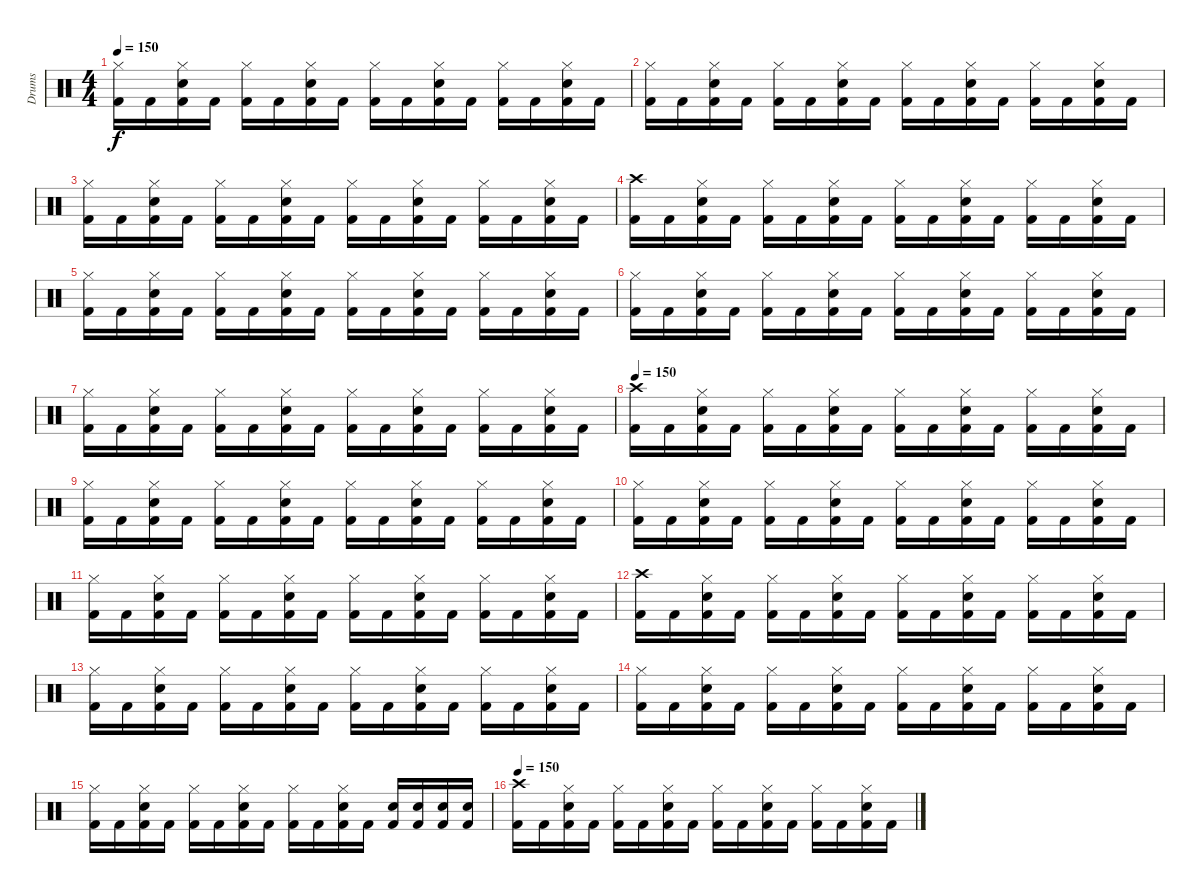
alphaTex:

\track ("Drums" "Drums") {instrument percussion}
\staff {score}
\articulation defaults
\ts (4 4)
\tempo 150
\clef neutral
\ks c
("Hi-Hat (closed)" "Kick (hit) 2").16{dy f} "Kick (hit) 2".16 ("Hi-Hat (closed)" "Electric Snare (hit)" "Kick (hit) 2").16 "Kick (hit) 2".16 ("Hi-Hat (closed)" "Kick (hit) 2").16 "Kick (hit) 2".16 ("Hi-Hat (closed)" "Electric Snare (hit)" "Kick (hit) 2").16 "Kick (hit) 2".16 ("Hi-Hat (closed)" "Kick (hit) 2").16 "Kick (hit) 2".16 ("Hi-Hat (closed)" "Electric Snare (hit)" "Kick (hit) 2").16 "Kick (hit) 2".16 ("Hi-Hat (closed)" "Kick (hit) 2").16 "Kick (hit) 2".16 ("Hi-Hat (closed)" "Electric Snare (hit)" "Kick (hit) 2").16 "Kick (hit) 2".16 |
("Hi-Hat (closed)" "Kick (hit) 2").16 "Kick (hit) 2".16 ("Hi-Hat (closed)" "Electric Snare (hit)" "Kick (hit) 2").16 "Kick (hit) 2".16 ("Hi-Hat (closed)" "Kick (hit) 2").16 "Kick (hit) 2".16 ("Hi-Hat (closed)" "Electric Snare (hit)" "Kick (hit) 2").16 "Kick (hit) 2".16 ("Hi-Hat (closed)" "Kick (hit) 2").16 "Kick (hit) 2".16 ("Hi-Hat (closed)" "Electric Snare (hit)" "Kick (hit) 2").16 "Kick (hit) 2".16 ("Hi-Hat (closed)" "Kick (hit) 2").16 "Kick (hit) 2".16 ("Hi-Hat (closed)" "Electric Snare (hit)" "Kick (hit) 2").16 "Kick (hit) 2".16 |
("Hi-Hat (closed)" "Kick (hit) 2").16 "Kick (hit) 2".16 ("Hi-Hat (closed)" "Electric Snare (hit)" "Kick (hit) 2").16 "Kick (hit) 2".16 ("Hi-Hat (closed)" "Kick (hit) 2").16 "Kick (hit) 2".16 ("Hi-Hat (closed)" "Electric Snare (hit)" "Kick (hit) 2").16 "Kick (hit) 2".16 ("Hi-Hat (closed)" "Kick (hit) 2").16 "Kick (hit) 2".16 ("Hi-Hat (closed)" "Electric Snare (hit)" "Kick (hit) 2").16 "Kick (hit) 2".16 ("Hi-Hat (closed)" "Kick (hit) 2").16 "Kick (hit) 2".16 ("Hi-Hat (closed)" "Electric Snare (hit)" "Kick (hit) 2").16 "Kick (hit) 2".16 |
("Crash high (hit)" "Kick (hit) 2").16 "Kick (hit) 2".16 ("Hi-Hat (closed)" "Electric Snare (hit)" "Kick (hit) 2").16 "Kick (hit) 2".16 ("Hi-Hat (closed)" "Kick (hit) 2").16 "Kick (hit) 2".16 ("Hi-Hat (closed)" "Electric Snare (hit)" "Kick (hit) 2").16 "Kick (hit) 2".16 ("Hi-Hat (closed)" "Kick (hit) 2").16 "Kick (hit) 2".16 ("Hi-Hat (closed)" "Electric Snare (hit)" "Kick (hit) 2").16 "Kick (hit) 2".16 ("Hi-Hat (closed)" "Kick (hit) 2").16 "Kick (hit) 2".16 ("Hi-Hat (closed)" "Electric Snare (hit)" "Kick (hit) 2").16 "Kick (hit) 2".16 |
("Hi-Hat (closed)" "Kick (hit) 2").16 "Kick (hit) 2".16 ("Hi-Hat (closed)" "Electric Snare (hit)" "Kick (hit) 2").16 "Kick (hit) 2".16 ("Hi-Hat (closed)" "Kick (hit) 2").16 "Kick (hit) 2".16 ("Hi-Hat (closed)" "Electric Snare (hit)" "Kick (hit) 2").16 "Kick (hit) 2".16 ("Hi-Hat (closed)" "Kick (hit) 2").16 "Kick (hit) 2".16 ("Hi-Hat (closed)" "Electric Snare (hit)" "Kick (hit) 2").16 "Kick (hit) 2".16 ("Hi-Hat (closed)" "Kick (hit) 2").16 "Kick (hit) 2".16 ("Hi-Hat (closed)" "Electric Snare (hit)" "Kick (hit) 2").16 "Kick (hit) 2".16 |
("Hi-Hat (closed)" "Kick (hit) 2").16 "Kick (hit) 2".16 ("Hi-Hat (closed)" "Electric Snare (hit)" "Kick (hit) 2").16 "Kick (hit) 2".16 ("Hi-Hat (closed)" "Kick (hit) 2").16 "Kick (hit) 2".16 ("Hi-Hat (closed)" "Electric Snare (hit)" "Kick (hit) 2").16 "Kick (hit) 2".16 ("Hi-Hat (closed)" "Kick (hit) 2").16 "Kick (hit) 2".16 ("Hi-Hat (closed)" "Electric Snare (hit)" "Kick (hit) 2").16 "Kick (hit) 2".16 ("Hi-Hat (closed)" "Kick (hit) 2").16 "Kick (hit) 2".16 ("Hi-Hat (closed)" "Electric Snare (hit)" "Kick (hit) 2").16 "Kick (hit) 2".16 |
("Hi-Hat (closed)" "Kick (hit) 2").16 "Kick (hit) 2".16 ("Hi-Hat (closed)" "Electric Snare (hit)" "Kick (hit) 2").16 "Kick (hit) 2".16 ("Hi-Hat (closed)" "Kick (hit) 2").16 "Kick (hit) 2".16 ("Hi-Hat (closed)" "Electric Snare (hit)" "Kick (hit) 2").16 "Kick (hit) 2".16 ("Hi-Hat (closed)" "Kick (hit) 2").16 "Kick (hit) 2".16 ("Hi-Hat (closed)" "Electric Snare (hit)" "Kick (hit) 2").16 "Kick (hit) 2".16 ("Hi-Hat (closed)" "Kick (hit) 2").16 "Kick (hit) 2".16 ("Hi-Hat (closed)" "Electric Snare (hit)" "Kick (hit) 2").16 "Kick (hit) 2".16 |
\tempo 150
("Crash high (hit)" "Kick (hit) 2").16 "Kick (hit) 2".16 ("Hi-Hat (closed)" "Electric Snare (hit)" "Kick (hit) 2").16 "Kick (hit) 2".16 ("Hi-Hat (closed)" "Kick (hit) 2").16 "Kick (hit) 2".16 ("Hi-Hat (closed)" "Electric Snare (hit)" "Kick (hit) 2").16 "Kick (hit) 2".16 ("Hi-Hat (closed)" "Kick (hit) 2").16 "Kick (hit) 2".16 ("Hi-Hat (closed)" "Electric Snare (hit)" "Kick (hit) 2").16 "Kick (hit) 2".16 ("Hi-Hat (closed)" "Kick (hit) 2").16 "Kick (hit) 2".16 ("Hi-Hat (closed)" "Electric Snare (hit)" "Kick (hit) 2").16 "Kick (hit) 2".16 |
("Hi-Hat (closed)" "Kick (hit) 2").16 "Kick (hit) 2".16 ("Hi-Hat (closed)" "Electric Snare (hit)" "Kick (hit) 2").16 "Kick (hit) 2".16 ("Hi-Hat (closed)" "Kick (hit) 2").16 "Kick (hit) 2".16 ("Hi-Hat (closed)" "Electric Snare (hit)" "Kick (hit) 2").16 "Kick (hit) 2".16 ("Hi-Hat (closed)" "Kick (hit) 2").16 "Kick (hit) 2".16 ("Hi-Hat (closed)" "Electric Snare (hit)" "Kick (hit) 2").16 "Kick (hit) 2".16 ("Hi-Hat (closed)" "Kick (hit) 2").16 "Kick (hit) 2".16 ("Hi-Hat (closed)" "Electric Snare (hit)" "Kick (hit) 2").16 "Kick (hit) 2".16 |
("Hi-Hat (closed)" "Kick (hit) 2").16 "Kick (hit) 2".16 ("Hi-Hat (closed)" "Electric Snare (hit)" "Kick (hit) 2").16 "Kick (hit) 2".16 ("Hi-Hat (closed)" "Kick (hit) 2").16 "Kick (hit) 2".16 ("Hi-Hat (closed)" "Electric Snare (hit)" "Kick (hit) 2").16 "Kick (hit) 2".16 ("Hi-Hat (closed)" "Kick (hit) 2").16 "Kick (hit) 2".16 ("Hi-Hat (closed)" "Electric Snare (hit)" "Kick (hit) 2").16 "Kick (hit) 2".16 ("Hi-Hat (closed)" "Kick (hit) 2").16 "Kick (hit) 2".16 ("Hi-Hat (closed)" "Electric Snare (hit)" "Kick (hit) 2").16 "Kick (hit) 2".16 |
("Hi-Hat (closed)" "Kick (hit) 2").16 "Kick (hit) 2".16 ("Hi-Hat (closed)" "Electric Snare (hit)" "Kick (hit) 2").16 "Kick (hit) 2".16 ("Hi-Hat (closed)" "Kick (hit) 2").16 "Kick (hit) 2".16 ("Hi-Hat (closed)" "Electric Snare (hit)" "Kick (hit) 2").16 "Kick (hit) 2".16 ("Hi-Hat (closed)" "Kick (hit) 2").16 "Kick (hit) 2".16 ("Hi-Hat (closed)" "Electric Snare (hit)" "Kick (hit) 2").16 "Kick (hit) 2".16 ("Hi-Hat (closed)" "Kick (hit) 2").16 "Kick (hit) 2".16 ("Hi-Hat (closed)" "Electric Snare (hit)" "Kick (hit) 2").16 "Kick (hit) 2".16 |
("Crash high (hit)" "Kick (hit) 2").16 "Kick (hit) 2".16 ("Hi-Hat (closed)" "Electric Snare (hit)" "Kick (hit) 2").16 "Kick (hit) 2".16 ("Hi-Hat (closed)" "Kick (hit) 2").16 "Kick (hit) 2".16 ("Hi-Hat (closed)" "Electric Snare (hit)" "Kick (hit) 2").16 "Kick (hit) 2".16 ("Hi-Hat (closed)" "Kick (hit) 2").16 "Kick (hit) 2".16 ("Hi-Hat (closed)" "Electric Snare (hit)" "Kick (hit) 2").16 "Kick (hit) 2".16 ("Hi-Hat (closed)" "Kick (hit) 2").16 "Kick (hit) 2".16 ("Hi-Hat (closed)" "Electric Snare (hit)" "Kick (hit) 2").16 "Kick (hit) 2".16 |
("Hi-Hat (closed)" "Kick (hit) 2").16 "Kick (hit) 2".16 ("Hi-Hat (closed)" "Electric Snare (hit)" "Kick (hit) 2").16 "Kick (hit) 2".16 ("Hi-Hat (closed)" "Kick (hit) 2").16 "Kick (hit) 2".16 ("Hi-Hat (closed)" "Electric Snare (hit)" "Kick (hit) 2").16 "Kick (hit) 2".16 ("Hi-Hat (closed)" "Kick (hit) 2").16 "Kick (hit) 2".16 ("Hi-Hat (closed)" "Electric Snare (hit)" "Kick (hit) 2").16 "Kick (hit) 2".16 ("Hi-Hat (closed)" "Kick (hit) 2").16 "Kick (hit) 2".16 ("Hi-Hat (closed)" "Electric Snare (hit)" "Kick (hit) 2").16 "Kick (hit) 2".16 |
("Hi-Hat (closed)" "Kick (hit) 2").16 "Kick (hit) 2".16 ("Hi-Hat (closed)" "Electric Snare (hit)" "Kick (hit) 2").16 "Kick (hit) 2".16 ("Hi-Hat (closed)" "Kick (hit) 2").16 "Kick (hit) 2".16 ("Hi-Hat (closed)" "Electric Snare (hit)" "Kick (hit) 2").16 "Kick (hit) 2".16 ("Hi-Hat (closed)" "Kick (hit) 2").16 "Kick (hit) 2".16 ("Hi-Hat (closed)" "Electric Snare (hit)" "Kick (hit) 2").16 "Kick (hit) 2".16 ("Hi-Hat (closed)" "Kick (hit) 2").16 "Kick (hit) 2".16 ("Hi-Hat (closed)" "Electric Snare (hit)" "Kick (hit) 2").16 "Kick (hit) 2".16 |
("Hi-Hat (closed)" "Kick (hit) 2").16 "Kick (hit) 2".16 ("Hi-Hat (closed)" "Electric Snare (hit)" "Kick (hit) 2").16 "Kick (hit) 2".16 ("Hi-Hat (closed)" "Kick (hit) 2").16 "Kick (hit) 2".16 ("Hi-Hat (closed)" "Electric Snare (hit)" "Kick (hit) 2").16 "Kick (hit) 2".16 ("Hi-Hat (closed)" "Kick (hit) 2").16 "Kick (hit) 2".16 ("Hi-Hat (closed)" "Electric Snare (hit)" "Kick (hit) 2").16 "Kick (hit) 2".16 ("Electric Snare (hit)" "Kick (hit) 2").16 ("Electric Snare (hit)" "Kick (hit) 2").16 ("Electric Snare (hit)" "Kick (hit) 2").16 ("Electric Snare (hit)" "Kick (hit) 2").16 |
\tempo 150
("Crash high (hit)" "Kick (hit) 2").16 "Kick (hit) 2".16 ("Hi-Hat (closed)" "Electric Snare (hit)" "Kick (hit) 2").16 "Kick (hit) 2".16 ("Hi-Hat (closed)" "Kick (hit) 2").16 "Kick (hit) 2".16 ("Hi-Hat (closed)" "Electric Snare (hit)" "Kick (hit) 2").16 "Kick (hit) 2".16 ("Hi-Hat (closed)" "Kick (hit) 2").16 "Kick (hit) 2".16 ("Hi-Hat (closed)" "Electric Snare (hit)" "Kick (hit) 2").16 "Kick (hit) 2".16 ("Hi-Hat (closed)" "Kick (hit) 2").16 "Kick (hit) 2".16 ("Hi-Hat (closed)" "Electric Snare (hit)" "Kick (hit) 2").16 "Kick (hit) 2".16
